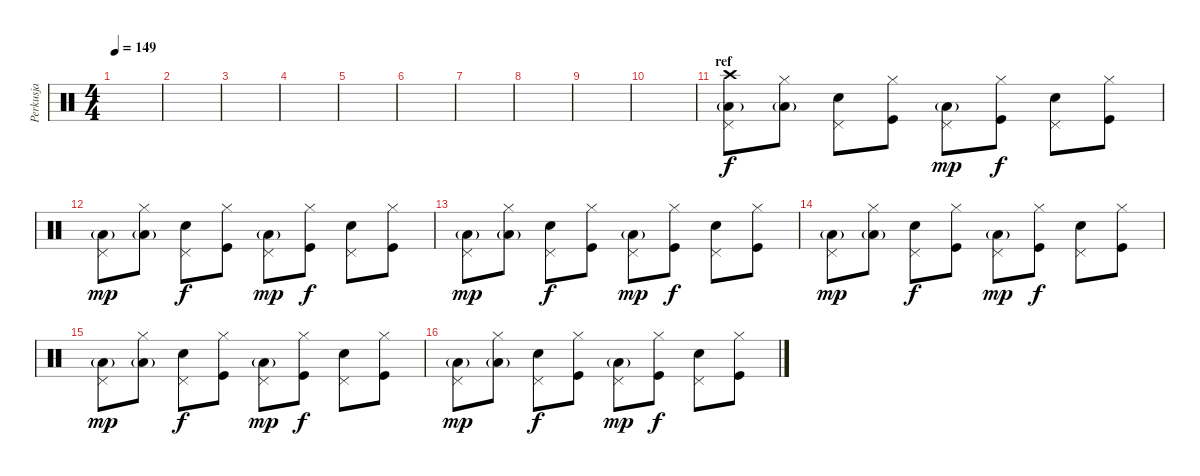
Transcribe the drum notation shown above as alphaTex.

\track ("Perkusja" "Perkusja") {instrument percussion}
\staff {score}
\articulation defaults
\ts (4 4)
\tempo 149
\clef neutral
\ks c
|
|
|
|
|
|
|
|
|
|
\section ("" "ref")
("Low Tom (hit)"{g} "Pedal Hi-Hat (hit)" "Crash high (hit)").8 ("Low Tom (hit)"{g} "Hi-Hat (closed)").8 ("Electric Snare (hit)" "Pedal Hi-Hat (hit)").8{dy f} ("Kick (hit)" "Hi-Hat (closed)").8 ("Low Tom (hit)"{g} "Pedal Hi-Hat (hit)").8{dy mp} ("Kick (hit)" "Hi-Hat (closed)").8{dy f} ("Electric Snare (hit)" "Pedal Hi-Hat (hit)").8 ("Kick (hit)" "Hi-Hat (closed)").8 |
("Low Tom (hit)"{g} "Pedal Hi-Hat (hit)").8{dy mp} ("Low Tom (hit)"{g} "Hi-Hat (closed)").8 ("Electric Snare (hit)" "Pedal Hi-Hat (hit)").8{dy f} ("Kick (hit)" "Hi-Hat (closed)").8 ("Low Tom (hit)"{g} "Pedal Hi-Hat (hit)").8{dy mp} ("Kick (hit)" "Hi-Hat (closed)").8{dy f} ("Electric Snare (hit)" "Pedal Hi-Hat (hit)").8 ("Kick (hit)" "Hi-Hat (closed)").8 |
("Low Tom (hit)"{g} "Pedal Hi-Hat (hit)").8{dy mp} ("Low Tom (hit)"{g} "Hi-Hat (closed)").8 ("Electric Snare (hit)" "Pedal Hi-Hat (hit)").8{dy f} ("Kick (hit)" "Hi-Hat (closed)").8 ("Low Tom (hit)"{g} "Pedal Hi-Hat (hit)").8{dy mp} ("Kick (hit)" "Hi-Hat (closed)").8{dy f} ("Electric Snare (hit)" "Pedal Hi-Hat (hit)").8 ("Kick (hit)" "Hi-Hat (closed)").8 |
("Low Tom (hit)"{g} "Pedal Hi-Hat (hit)").8{dy mp} ("Low Tom (hit)"{g} "Hi-Hat (closed)").8 ("Electric Snare (hit)" "Pedal Hi-Hat (hit)").8{dy f} ("Kick (hit)" "Hi-Hat (closed)").8 ("Low Tom (hit)"{g} "Pedal Hi-Hat (hit)").8{dy mp} ("Kick (hit)" "Hi-Hat (closed)").8{dy f} ("Electric Snare (hit)" "Pedal Hi-Hat (hit)").8 ("Kick (hit)" "Hi-Hat (closed)").8 |
("Low Tom (hit)"{g} "Pedal Hi-Hat (hit)").8{dy mp} ("Low Tom (hit)"{g} "Hi-Hat (closed)").8 ("Electric Snare (hit)" "Pedal Hi-Hat (hit)").8{dy f} ("Kick (hit)" "Hi-Hat (closed)").8 ("Low Tom (hit)"{g} "Pedal Hi-Hat (hit)").8{dy mp} ("Kick (hit)" "Hi-Hat (closed)").8{dy f} ("Electric Snare (hit)" "Pedal Hi-Hat (hit)").8 ("Kick (hit)" "Hi-Hat (closed)").8 |
("Low Tom (hit)"{g} "Pedal Hi-Hat (hit)").8{dy mp} ("Low Tom (hit)"{g} "Hi-Hat (closed)").8 ("Electric Snare (hit)" "Pedal Hi-Hat (hit)").8{dy f} ("Kick (hit)" "Hi-Hat (closed)").8 ("Low Tom (hit)"{g} "Pedal Hi-Hat (hit)").8{dy mp} ("Kick (hit)" "Hi-Hat (closed)").8{dy f} ("Electric Snare (hit)" "Pedal Hi-Hat (hit)").8 ("Kick (hit)" "Hi-Hat (closed)").8
